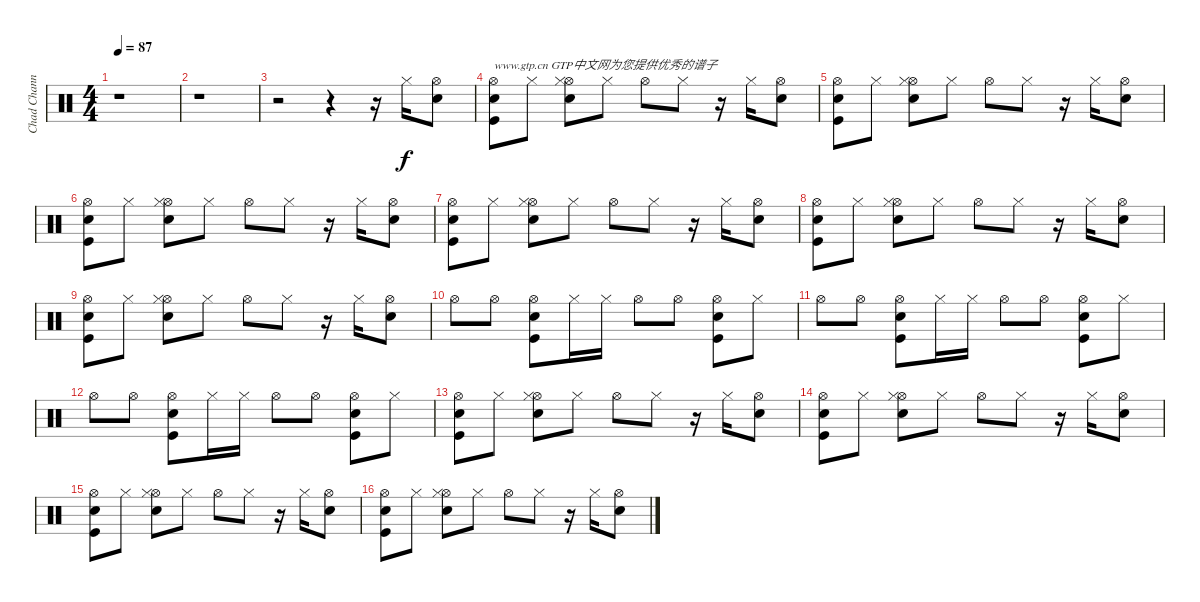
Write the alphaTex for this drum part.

\track ("Chad Channing" "Chad Chann") {instrument percussion}
\staff {score}
\articulation defaults
\ts (4 4)
\tempo 87
\clef neutral
\ks c
r.1{dy f} |
r.1 |
r.2 r.4 r.16 "Hi-Hat (closed)".16 ("Snare (hit) 2" "Hi-Hat (open)").8 |
("Hi-Hat (open)" "Snare (hit) 2" "Kick (hit)").8{txt "www.gtp.cn GTP中文网为您提供优秀的谱子"} "Hi-Hat (closed)".8 ("Hi-Hat (open)" "Snare (hit) 2" "Hi-Hat (closed)").8 "Hi-Hat (closed)".8 "Hi-Hat (open)".8 "Hi-Hat (closed)".8 r.16 "Hi-Hat (closed)".16 ("Hi-Hat (open)" "Snare (hit) 2").8 |
("Hi-Hat (open)" "Snare (hit) 2" "Kick (hit)").8 "Hi-Hat (closed)".8 ("Hi-Hat (open)" "Snare (hit) 2" "Hi-Hat (closed)").8 "Hi-Hat (closed)".8 "Hi-Hat (open)".8 "Hi-Hat (closed)".8 r.16 "Hi-Hat (closed)".16 ("Hi-Hat (open)" "Snare (hit) 2").8 |
("Hi-Hat (open)" "Snare (hit) 2" "Kick (hit)").8 "Hi-Hat (closed)".8 ("Hi-Hat (open)" "Snare (hit) 2" "Hi-Hat (closed)").8 "Hi-Hat (closed)".8 "Hi-Hat (open)".8 "Hi-Hat (closed)".8 r.16 "Hi-Hat (closed)".16 ("Hi-Hat (open)" "Snare (hit) 2").8 |
("Hi-Hat (open)" "Snare (hit) 2" "Kick (hit)").8 "Hi-Hat (closed)".8 ("Hi-Hat (open)" "Snare (hit) 2" "Hi-Hat (closed)").8 "Hi-Hat (closed)".8 "Hi-Hat (open)".8 "Hi-Hat (closed)".8 r.16 "Hi-Hat (closed)".16 ("Hi-Hat (open)" "Snare (hit) 2").8 |
("Hi-Hat (open)" "Snare (hit) 2" "Kick (hit)").8 "Hi-Hat (closed)".8 ("Hi-Hat (open)" "Snare (hit) 2" "Hi-Hat (closed)").8 "Hi-Hat (closed)".8 "Hi-Hat (open)".8 "Hi-Hat (closed)".8 r.16 "Hi-Hat (closed)".16 ("Hi-Hat (open)" "Snare (hit) 2").8 |
("Hi-Hat (open)" "Snare (hit) 2" "Kick (hit)").8 "Hi-Hat (closed)".8 ("Hi-Hat (open)" "Snare (hit) 2" "Hi-Hat (closed)").8 "Hi-Hat (closed)".8 "Hi-Hat (open)".8 "Hi-Hat (closed)".8 r.16 "Hi-Hat (closed)".16 ("Hi-Hat (open)" "Snare (hit) 2").8 |
"Hi-Hat (open)".8 "Hi-Hat (open)".8 ("Snare (hit) 2" "Hi-Hat (open)" "Kick (hit)").8 "Hi-Hat (closed)".16 "Hi-Hat (closed)".16 "Hi-Hat (open)".8 "Hi-Hat (open)".8 ("Snare (hit) 2" "Hi-Hat (open)" "Kick (hit)").8 "Hi-Hat (closed)".8 |
"Hi-Hat (open)".8 "Hi-Hat (open)".8 ("Snare (hit) 2" "Hi-Hat (open)" "Kick (hit)").8 "Hi-Hat (closed)".16 "Hi-Hat (closed)".16 "Hi-Hat (open)".8 "Hi-Hat (open)".8 ("Snare (hit) 2" "Hi-Hat (open)" "Kick (hit)").8 "Hi-Hat (closed)".8 |
"Hi-Hat (open)".8 "Hi-Hat (open)".8 ("Snare (hit) 2" "Hi-Hat (open)" "Kick (hit)").8 "Hi-Hat (closed)".16 "Hi-Hat (closed)".16 "Hi-Hat (open)".8 "Hi-Hat (open)".8 ("Snare (hit) 2" "Hi-Hat (open)" "Kick (hit)").8 "Hi-Hat (closed)".8 |
("Hi-Hat (open)" "Snare (hit) 2" "Kick (hit)").8 "Hi-Hat (closed)".8 ("Hi-Hat (open)" "Snare (hit) 2" "Hi-Hat (closed)").8 "Hi-Hat (closed)".8 "Hi-Hat (open)".8 "Hi-Hat (closed)".8 r.16 "Hi-Hat (closed)".16 ("Hi-Hat (open)" "Snare (hit) 2").8 |
("Hi-Hat (open)" "Snare (hit) 2" "Kick (hit)").8 "Hi-Hat (closed)".8 ("Hi-Hat (open)" "Snare (hit) 2" "Hi-Hat (closed)").8 "Hi-Hat (closed)".8 "Hi-Hat (open)".8 "Hi-Hat (closed)".8 r.16 "Hi-Hat (closed)".16 ("Hi-Hat (open)" "Snare (hit) 2").8 |
("Hi-Hat (open)" "Snare (hit) 2" "Kick (hit)").8 "Hi-Hat (closed)".8 ("Hi-Hat (open)" "Snare (hit) 2" "Hi-Hat (closed)").8 "Hi-Hat (closed)".8 "Hi-Hat (open)".8 "Hi-Hat (closed)".8 r.16 "Hi-Hat (closed)".16 ("Hi-Hat (open)" "Snare (hit) 2").8 |
("Hi-Hat (open)" "Snare (hit) 2" "Kick (hit)").8 "Hi-Hat (closed)".8 ("Hi-Hat (open)" "Snare (hit) 2" "Hi-Hat (closed)").8 "Hi-Hat (closed)".8 "Hi-Hat (open)".8 "Hi-Hat (closed)".8 r.16 "Hi-Hat (closed)".16 ("Hi-Hat (open)" "Snare (hit) 2").8
